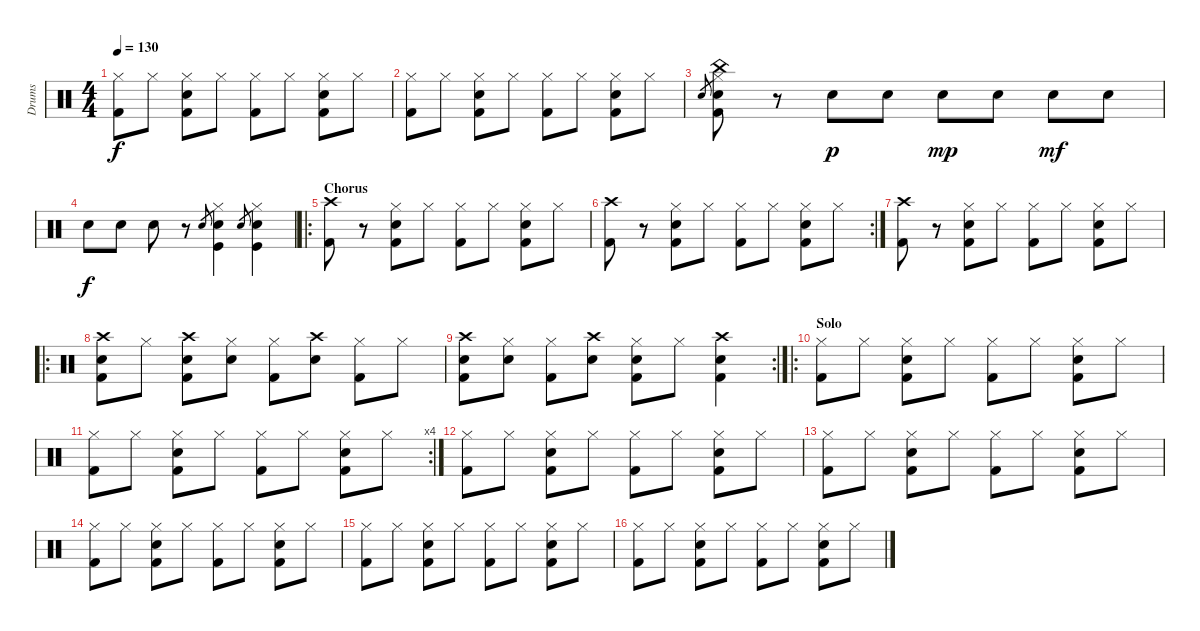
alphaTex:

\track ("Drums" "Drums") {instrument percussion}
\staff {score}
\articulation defaults
\ts (4 4)
\tempo 130
\clef neutral
\ks c
("Hi-Hat (closed)" "Kick (hit) 2").8{dy f} "Hi-Hat (closed)".8 ("Hi-Hat (closed)" "Snare (hit) 2" "Kick (hit) 2").8 "Hi-Hat (closed)".8 ("Hi-Hat (closed)" "Kick (hit) 2").8 "Hi-Hat (closed)".8 ("Hi-Hat (closed)" "Snare (hit) 2" "Kick (hit) 2").8 "Hi-Hat (closed)".8 |
("Hi-Hat (closed)" "Kick (hit) 2").8 "Hi-Hat (closed)".8 ("Hi-Hat (closed)" "Snare (hit) 2" "Kick (hit) 2").8 "Hi-Hat (closed)".8 ("Hi-Hat (closed)" "Kick (hit) 2").8 "Hi-Hat (closed)".8 ("Hi-Hat (closed)" "Snare (hit) 2" "Kick (hit) 2").8 "Hi-Hat (closed)".8 |
"Snare (hit) 2".8{gr} ("Hi-Hat (closed)" "Snare (hit) 2" "China (hit)" "Kick (hit) 2").8 r.8 "Snare (hit) 2".8{dy p} "Snare (hit) 2".8 "Snare (hit) 2".8{dy mp} "Snare (hit) 2".8 "Snare (hit) 2".8{dy mf} "Snare (hit) 2".8 |
"Snare (hit) 2".8{dy f} "Snare (hit) 2".8 "Snare (hit) 2".8 r.8 "Snare (hit) 2".8{gr} ("Hi-Hat (closed)" "Snare (hit) 2" "Kick (hit)").4 "Snare (hit) 2".8{gr} ("Hi-Hat (closed)" "Snare (hit) 2" "Kick (hit)").4 |
\ro
\section ("" "Chorus")
("Crash high (hit)" "Kick (hit) 2").8 r.8 ("Hi-Hat (closed)" "Snare (hit) 2" "Kick (hit) 2").8 "Hi-Hat (closed)".8 ("Hi-Hat (closed)" "Kick (hit) 2").8 "Hi-Hat (closed)".8 ("Hi-Hat (closed)" "Snare (hit) 2" "Kick (hit) 2").8 "Hi-Hat (closed)".8 |
\rc 2
("Crash high (hit)" "Kick (hit) 2").8 r.8 ("Hi-Hat (closed)" "Snare (hit) 2" "Kick (hit) 2").8 "Hi-Hat (closed)".8 ("Hi-Hat (closed)" "Kick (hit) 2").8 "Hi-Hat (closed)".8 ("Hi-Hat (closed)" "Snare (hit) 2" "Kick (hit) 2").8 "Hi-Hat (closed)".8 |
("Crash high (hit)" "Kick (hit) 2").8 r.8 ("Hi-Hat (closed)" "Snare (hit) 2" "Kick (hit) 2").8 "Hi-Hat (closed)".8 ("Hi-Hat (closed)" "Kick (hit) 2").8 "Hi-Hat (closed)".8 ("Hi-Hat (closed)" "Snare (hit) 2" "Kick (hit) 2").8 "Hi-Hat (closed)".8 |
\ro
("Crash high (hit)" "Snare (hit) 2" "Kick (hit) 2").8 "Hi-Hat (closed)".8 ("Crash high (hit)" "Snare (hit) 2" "Kick (hit) 2").8 ("Hi-Hat (closed)" "Snare (hit) 2").8 ("Hi-Hat (closed)" "Kick (hit) 2").8 ("Crash high (hit)" "Snare (hit) 2").8 ("Hi-Hat (closed)" "Kick (hit) 2").8 "Hi-Hat (closed)".8 |
\rc 2
("Crash high (hit)" "Snare (hit) 2" "Kick (hit) 2").8 ("Hi-Hat (closed)" "Snare (hit) 2").8 ("Hi-Hat (closed)" "Kick (hit) 2").8 ("Crash high (hit)" "Snare (hit) 2").8 ("Hi-Hat (closed)" "Snare (hit) 2" "Kick (hit) 2").8 "Hi-Hat (closed)".8 ("Crash high (hit)" "Snare (hit) 2" "Kick (hit) 2").4 |
\ro
\section ("" "Solo")
("Hi-Hat (closed)" "Kick (hit) 2").8 "Hi-Hat (closed)".8 ("Hi-Hat (closed)" "Snare (hit) 2" "Kick (hit) 2").8 "Hi-Hat (closed)".8 ("Hi-Hat (closed)" "Kick (hit) 2").8 "Hi-Hat (closed)".8 ("Hi-Hat (closed)" "Snare (hit) 2" "Kick (hit) 2").8 "Hi-Hat (closed)".8 |
\rc 4
("Hi-Hat (closed)" "Kick (hit) 2").8 "Hi-Hat (closed)".8 ("Hi-Hat (closed)" "Snare (hit) 2" "Kick (hit) 2").8 "Hi-Hat (closed)".8 ("Hi-Hat (closed)" "Kick (hit) 2").8 "Hi-Hat (closed)".8 ("Hi-Hat (closed)" "Snare (hit) 2" "Kick (hit) 2").8 "Hi-Hat (closed)".8 |
("Hi-Hat (closed)" "Kick (hit) 2").8 "Hi-Hat (closed)".8 ("Hi-Hat (closed)" "Snare (hit) 2" "Kick (hit) 2").8 "Hi-Hat (closed)".8 ("Hi-Hat (closed)" "Kick (hit) 2").8 "Hi-Hat (closed)".8 ("Hi-Hat (closed)" "Snare (hit) 2" "Kick (hit) 2").8 "Hi-Hat (closed)".8 |
("Hi-Hat (closed)" "Kick (hit) 2").8 "Hi-Hat (closed)".8 ("Hi-Hat (closed)" "Snare (hit) 2" "Kick (hit) 2").8 "Hi-Hat (closed)".8 ("Hi-Hat (closed)" "Kick (hit) 2").8 "Hi-Hat (closed)".8 ("Hi-Hat (closed)" "Snare (hit) 2" "Kick (hit) 2").8 "Hi-Hat (closed)".8 |
("Hi-Hat (closed)" "Kick (hit) 2").8 "Hi-Hat (closed)".8 ("Hi-Hat (closed)" "Snare (hit) 2" "Kick (hit) 2").8 "Hi-Hat (closed)".8 ("Hi-Hat (closed)" "Kick (hit) 2").8 "Hi-Hat (closed)".8 ("Hi-Hat (closed)" "Snare (hit) 2" "Kick (hit) 2").8 "Hi-Hat (closed)".8 |
("Hi-Hat (closed)" "Kick (hit) 2").8 "Hi-Hat (closed)".8 ("Hi-Hat (closed)" "Snare (hit) 2" "Kick (hit) 2").8 "Hi-Hat (closed)".8 ("Hi-Hat (closed)" "Kick (hit) 2").8 "Hi-Hat (closed)".8 ("Hi-Hat (closed)" "Snare (hit) 2" "Kick (hit) 2").8 "Hi-Hat (closed)".8 |
("Hi-Hat (closed)" "Kick (hit) 2").8 "Hi-Hat (closed)".8 ("Hi-Hat (closed)" "Snare (hit) 2" "Kick (hit) 2").8 "Hi-Hat (closed)".8 ("Hi-Hat (closed)" "Kick (hit) 2").8 "Hi-Hat (closed)".8 ("Hi-Hat (closed)" "Snare (hit) 2" "Kick (hit) 2").8 "Hi-Hat (closed)".8
